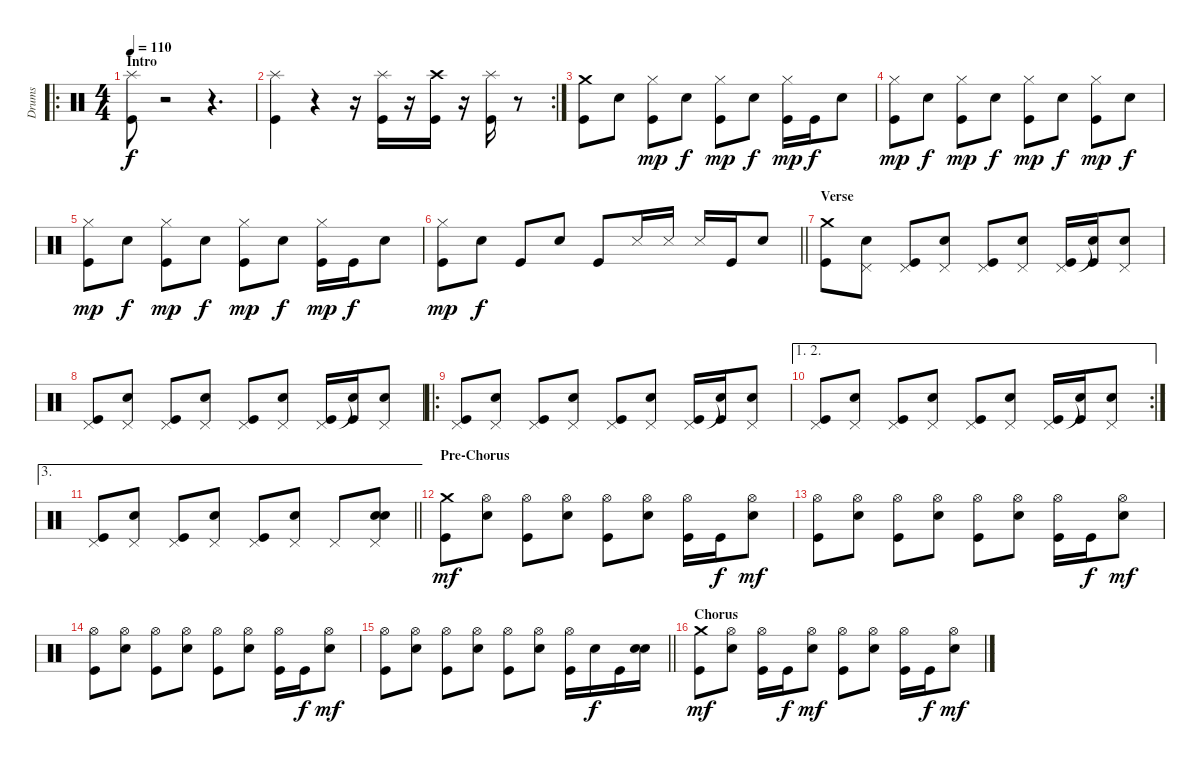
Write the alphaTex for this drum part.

\track ("Drums" "Drums") {instrument percussion}
\staff {score}
\articulation defaults
\ro
\ts (4 4)
\section ("" "Intro")
\tempo 110
\clef neutral
\ks c
("Kick (hit)" "Splash (hit)").8{dy f} r.2 r.4{d} |
\rc 2
("Kick (hit)" "Splash (hit)").4 r.4 r.16 ("Kick (hit)" "Splash (hit)").16 r.16 ("Kick (hit)" "Crash high (hit)").16 r.16 ("Kick (hit)" "Splash (hit)").16 r.8 |
("Kick (hit)" "Crash medium (hit)").8 "Electric Snare (hit)".8 ("Kick (hit)" "Hi-Hat (closed)").8{dy mp} "Electric Snare (hit)".8{dy f} ("Kick (hit)" "Hi-Hat (closed)").8{dy mp} "Electric Snare (hit)".8{dy f} ("Kick (hit)" "Hi-Hat (closed)").16{dy mp} "Kick (hit)".16{dy f} "Electric Snare (hit)".8 |
("Kick (hit)" "Hi-Hat (closed)").8{dy mp} "Electric Snare (hit)".8{dy f} ("Kick (hit)" "Hi-Hat (closed)").8{dy mp} "Electric Snare (hit)".8{dy f} ("Kick (hit)" "Hi-Hat (closed)").8{dy mp} "Electric Snare (hit)".8{dy f} ("Kick (hit)" "Hi-Hat (closed)").8{dy mp} "Electric Snare (hit)".8{dy f} |
("Kick (hit)" "Hi-Hat (closed)").8{dy mp} "Electric Snare (hit)".8{dy f} ("Kick (hit)" "Hi-Hat (closed)").8{dy mp} "Electric Snare (hit)".8{dy f} ("Kick (hit)" "Hi-Hat (closed)").8{dy mp} "Electric Snare (hit)".8{dy f} ("Kick (hit)" "Hi-Hat (closed)").16{dy mp} "Kick (hit)".16{dy f} "Electric Snare (hit)".8 |
\barLineRight lightlight
("Kick (hit)" "Hi-Hat (closed)").8{dy mp} "Electric Snare (hit)".8{dy f} "Kick (hit)".8 "Electric Snare (hit)".8 "Kick (hit)".8 "Snare (side stick) 3".16 "Snare (side stick) 3".16 "Snare (side stick) 3".16 "Kick (hit)".16 "Electric Snare (hit)".8 |
\section ("" "Verse")
("Kick (hit)" "Crash medium (hit)").8 ("Electric Snare (hit)" "Pedal Hi-Hat (hit)").8 ("Kick (hit)" "Pedal Hi-Hat (hit)").8 ("Electric Snare (hit)" "Pedal Hi-Hat (hit)").8 ("Kick (hit)" "Pedal Hi-Hat (hit)").8 ("Electric Snare (hit)" "Pedal Hi-Hat (hit)").8 ("Kick (hit)" "Pedal Hi-Hat (hit)").16 ("Kick (hit)" "Snare (hit)"{t}).16 ("Electric Snare (hit)" "Pedal Hi-Hat (hit)").8 |
("Kick (hit)" "Pedal Hi-Hat (hit)").8 ("Electric Snare (hit)" "Pedal Hi-Hat (hit)").8 ("Kick (hit)" "Pedal Hi-Hat (hit)").8 ("Electric Snare (hit)" "Pedal Hi-Hat (hit)").8 ("Kick (hit)" "Pedal Hi-Hat (hit)").8 ("Electric Snare (hit)" "Pedal Hi-Hat (hit)").8 ("Kick (hit)" "Pedal Hi-Hat (hit)").16 ("Kick (hit)" "Snare (hit)"{t}).16 ("Electric Snare (hit)" "Pedal Hi-Hat (hit)").8 |
\ro
("Kick (hit)" "Pedal Hi-Hat (hit)").8 ("Electric Snare (hit)" "Pedal Hi-Hat (hit)").8 ("Kick (hit)" "Pedal Hi-Hat (hit)").8 ("Electric Snare (hit)" "Pedal Hi-Hat (hit)").8 ("Kick (hit)" "Pedal Hi-Hat (hit)").8 ("Electric Snare (hit)" "Pedal Hi-Hat (hit)").8 ("Kick (hit)" "Pedal Hi-Hat (hit)").16 ("Kick (hit)" "Snare (hit)"{t}).16 ("Electric Snare (hit)" "Pedal Hi-Hat (hit)").8 |
\ae (1 2)
\rc 2
("Kick (hit)" "Pedal Hi-Hat (hit)").8 ("Electric Snare (hit)" "Pedal Hi-Hat (hit)").8 ("Kick (hit)" "Pedal Hi-Hat (hit)").8 ("Electric Snare (hit)" "Pedal Hi-Hat (hit)").8 ("Kick (hit)" "Pedal Hi-Hat (hit)").8 ("Electric Snare (hit)" "Pedal Hi-Hat (hit)").8 ("Kick (hit)" "Pedal Hi-Hat (hit)").16 ("Kick (hit)" "Snare (hit)"{t}).16 ("Electric Snare (hit)" "Pedal Hi-Hat (hit)").8 |
\ae 3
\barLineRight lightlight
("Kick (hit)" "Pedal Hi-Hat (hit)").8 ("Electric Snare (hit)" "Pedal Hi-Hat (hit)").8 ("Kick (hit)" "Pedal Hi-Hat (hit)").8 ("Electric Snare (hit)" "Pedal Hi-Hat (hit)").8 ("Kick (hit)" "Pedal Hi-Hat (hit)").8 ("Electric Snare (hit)" "Pedal Hi-Hat (hit)").8 "Pedal Hi-Hat (hit)".8 ("Snare (hit) 2" "Electric Snare (hit)" "Pedal Hi-Hat (hit)").8 |
\section ("" "Pre-Chorus")
("Kick (hit)" "Crash medium (hit)").8{dy mf} ("Electric Snare (hit)" "Hi-Hat (open)").8 ("Kick (hit)" "Hi-Hat (open)").8 ("Electric Snare (hit)" "Hi-Hat (open)").8 ("Kick (hit)" "Hi-Hat (open)").8 ("Electric Snare (hit)" "Hi-Hat (open)").8 ("Kick (hit)" "Hi-Hat (open)").16 "Kick (hit)".16{dy f} ("Electric Snare (hit)" "Hi-Hat (open)").8{dy mf} |
("Kick (hit)" "Hi-Hat (open)").8 ("Electric Snare (hit)" "Hi-Hat (open)").8 ("Kick (hit)" "Hi-Hat (open)").8 ("Electric Snare (hit)" "Hi-Hat (open)").8 ("Kick (hit)" "Hi-Hat (open)").8 ("Electric Snare (hit)" "Hi-Hat (open)").8 ("Kick (hit)" "Hi-Hat (open)").16 "Kick (hit)".16{dy f} ("Electric Snare (hit)" "Hi-Hat (open)").8{dy mf} |
("Kick (hit)" "Hi-Hat (open)").8 ("Electric Snare (hit)" "Hi-Hat (open)").8 ("Kick (hit)" "Hi-Hat (open)").8 ("Electric Snare (hit)" "Hi-Hat (open)").8 ("Kick (hit)" "Hi-Hat (open)").8 ("Electric Snare (hit)" "Hi-Hat (open)").8 ("Kick (hit)" "Hi-Hat (open)").16 "Kick (hit)".16{dy f} ("Electric Snare (hit)" "Hi-Hat (open)").8{dy mf} |
\barLineRight lightlight
("Kick (hit)" "Hi-Hat (open)").8 ("Electric Snare (hit)" "Hi-Hat (open)").8 ("Kick (hit)" "Hi-Hat (open)").8 ("Electric Snare (hit)" "Hi-Hat (open)").8 ("Kick (hit)" "Hi-Hat (open)").8 ("Electric Snare (hit)" "Hi-Hat (open)").8 ("Kick (hit)" "Hi-Hat (open)").16 "Electric Snare (hit)".16{dy f} "Kick (hit)".16 ("Snare (hit) 2" "Electric Snare (hit)").16 |
\section ("" "Chorus")
("Kick (hit)" "Crash medium (hit)").8{dy mf} ("Electric Snare (hit)" "Hi-Hat (open)").8 ("Kick (hit)" "Hi-Hat (open)").16 "Kick (hit)".16{dy f} ("Electric Snare (hit)" "Hi-Hat (open)").8{dy mf} ("Kick (hit)" "Hi-Hat (open)").8 ("Electric Snare (hit)" "Hi-Hat (open)").8 ("Kick (hit)" "Hi-Hat (open)").16 "Kick (hit)".16{dy f} ("Electric Snare (hit)" "Hi-Hat (open)").8{dy mf}
